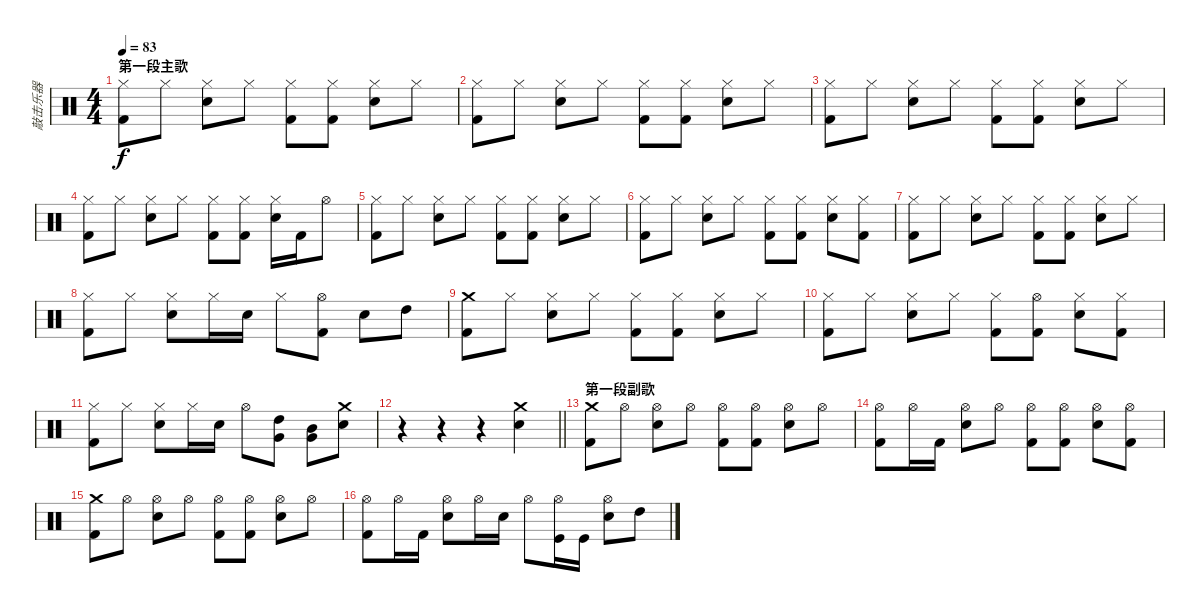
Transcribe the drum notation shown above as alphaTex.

\track ("敲击乐器" "敲击乐器") {mute instrument percussion}
\staff {score}
\articulation defaults
\ts (4 4)
\section ("" "第一段主歌")
\tempo 83
\clef neutral
\ks c
("Hi-Hat (closed)" "Kick (hit) 2").8{dy f} "Hi-Hat (closed)".8 ("Hi-Hat (closed)" "Electric Snare (hit)").8 "Hi-Hat (closed)".8 ("Hi-Hat (closed)" "Kick (hit) 2").8 ("Hi-Hat (closed)" "Kick (hit) 2").8 ("Hi-Hat (closed)" "Electric Snare (hit)").8 "Hi-Hat (closed)".8 |
("Hi-Hat (closed)" "Kick (hit) 2").8 "Hi-Hat (closed)".8 ("Hi-Hat (closed)" "Electric Snare (hit)").8 "Hi-Hat (closed)".8 ("Hi-Hat (closed)" "Kick (hit) 2").8 ("Hi-Hat (closed)" "Kick (hit) 2").8 ("Hi-Hat (closed)" "Electric Snare (hit)").8 "Hi-Hat (closed)".8 |
("Hi-Hat (closed)" "Kick (hit) 2").8 "Hi-Hat (closed)".8 ("Hi-Hat (closed)" "Electric Snare (hit)").8 "Hi-Hat (closed)".8 ("Hi-Hat (closed)" "Kick (hit) 2").8 ("Hi-Hat (closed)" "Kick (hit) 2").8 ("Hi-Hat (closed)" "Electric Snare (hit)").8 "Hi-Hat (closed)".8 |
("Hi-Hat (closed)" "Kick (hit) 2").8 "Hi-Hat (closed)".8 ("Hi-Hat (closed)" "Electric Snare (hit)").8 "Hi-Hat (closed)".8 ("Hi-Hat (closed)" "Kick (hit) 2").8 ("Hi-Hat (closed)" "Kick (hit) 2").8 ("Hi-Hat (closed)" "Electric Snare (hit)").16 "Kick (hit) 2".16 "Hi-Hat (open)".8 |
("Hi-Hat (closed)" "Kick (hit) 2").8 "Hi-Hat (closed)".8 ("Hi-Hat (closed)" "Electric Snare (hit)").8 "Hi-Hat (closed)".8 ("Hi-Hat (closed)" "Kick (hit) 2").8 ("Hi-Hat (closed)" "Kick (hit) 2").8 ("Hi-Hat (closed)" "Electric Snare (hit)").8 "Hi-Hat (closed)".8 |
("Hi-Hat (closed)" "Kick (hit) 2").8 "Hi-Hat (closed)".8 ("Hi-Hat (closed)" "Electric Snare (hit)").8 "Hi-Hat (closed)".8 ("Hi-Hat (closed)" "Kick (hit) 2").8 ("Hi-Hat (closed)" "Kick (hit) 2").8 ("Hi-Hat (closed)" "Electric Snare (hit)").8 ("Hi-Hat (closed)" "Kick (hit) 2").8 |
("Hi-Hat (closed)" "Kick (hit) 2").8 "Hi-Hat (closed)".8 ("Hi-Hat (closed)" "Electric Snare (hit)").8 "Hi-Hat (closed)".8 ("Hi-Hat (closed)" "Kick (hit) 2").8 ("Hi-Hat (closed)" "Kick (hit) 2").8 ("Hi-Hat (closed)" "Electric Snare (hit)").8 "Hi-Hat (closed)".8 |
("Hi-Hat (closed)" "Kick (hit) 2").8 "Hi-Hat (closed)".8 ("Electric Snare (hit)" "Hi-Hat (closed)").8 "Hi-Hat (closed)".16 "Electric Snare (hit)".16 "Hi-Hat (closed)".8 ("Hi-Hat (open)" "Kick (hit) 2").8 "Electric Snare (hit)".8 "High Tom (hit)".8 |
("Crash medium (hit)" "Kick (hit) 2").8 "Hi-Hat (closed)".8 ("Hi-Hat (closed)" "Electric Snare (hit)").8 "Hi-Hat (closed)".8 ("Hi-Hat (closed)" "Kick (hit) 2").8 ("Hi-Hat (closed)" "Kick (hit) 2").8 ("Hi-Hat (closed)" "Electric Snare (hit)").8 "Hi-Hat (closed)".8 |
("Hi-Hat (closed)" "Kick (hit) 2").8 "Hi-Hat (closed)".8 ("Hi-Hat (closed)" "Electric Snare (hit)").8 "Hi-Hat (closed)".8 ("Hi-Hat (closed)" "Kick (hit) 2").8 ("Hi-Hat (open)" "Kick (hit) 2").8 ("Hi-Hat (closed)" "Electric Snare (hit)").8 ("Hi-Hat (closed)" "Kick (hit) 2").8 |
("Hi-Hat (closed)" "Kick (hit) 2").8 "Hi-Hat (closed)".8 ("Hi-Hat (closed)" "Electric Snare (hit)").8 "Hi-Hat (closed)".16 "Electric Snare (hit)".16 "Hi-Hat (open)".8 ("High Tom (hit)" "Very Low Tom (hit)").8 ("Mid Tom (hit)" "Very Low Tom (hit)").8 ("Crash medium (hit)" "Electric Snare (hit)").8 |
\barLineRight lightlight
r.4 r.4 r.4 ("Crash medium (hit)" "Electric Snare (hit)").4 |
\section ("" "第一段副歌")
("Crash medium (hit)" "Kick (hit) 2").8 "Hi-Hat (open)".8 ("Hi-Hat (open)" "Electric Snare (hit)").8 "Hi-Hat (open)".8 ("Hi-Hat (open)" "Kick (hit) 2").8 ("Kick (hit) 2" "Hi-Hat (open)").8 ("Hi-Hat (open)" "Electric Snare (hit)").8 "Hi-Hat (open)".8 |
("Hi-Hat (open)" "Kick (hit) 2").8 "Hi-Hat (open)".16 "Kick (hit) 2".16 ("Hi-Hat (open)" "Electric Snare (hit)").8 "Hi-Hat (open)".8 ("Hi-Hat (open)" "Kick (hit) 2").8 ("Hi-Hat (open)" "Kick (hit) 2").8 ("Hi-Hat (open)" "Electric Snare (hit)").8 ("Hi-Hat (open)" "Kick (hit) 2").8 |
("Crash medium (hit)" "Kick (hit) 2").8 "Hi-Hat (open)".8 ("Hi-Hat (open)" "Electric Snare (hit)").8 "Hi-Hat (open)".8 ("Hi-Hat (open)" "Kick (hit) 2").8 ("Kick (hit) 2" "Hi-Hat (open)").8 ("Hi-Hat (open)" "Electric Snare (hit)").8 "Hi-Hat (open)".8 |
("Hi-Hat (open)" "Kick (hit) 2").8 "Hi-Hat (open)".16 "Kick (hit) 2".16 ("Hi-Hat (open)" "Electric Snare (hit)").8 "Hi-Hat (open)".16 "Snare (hit) 2".16 "Hi-Hat (open)".8 ("Hi-Hat (open)" "Kick (hit)").16 "Kick (hit)".16 ("Hi-Hat (open)" "Snare (hit) 2").8 "High Tom (hit)".8
